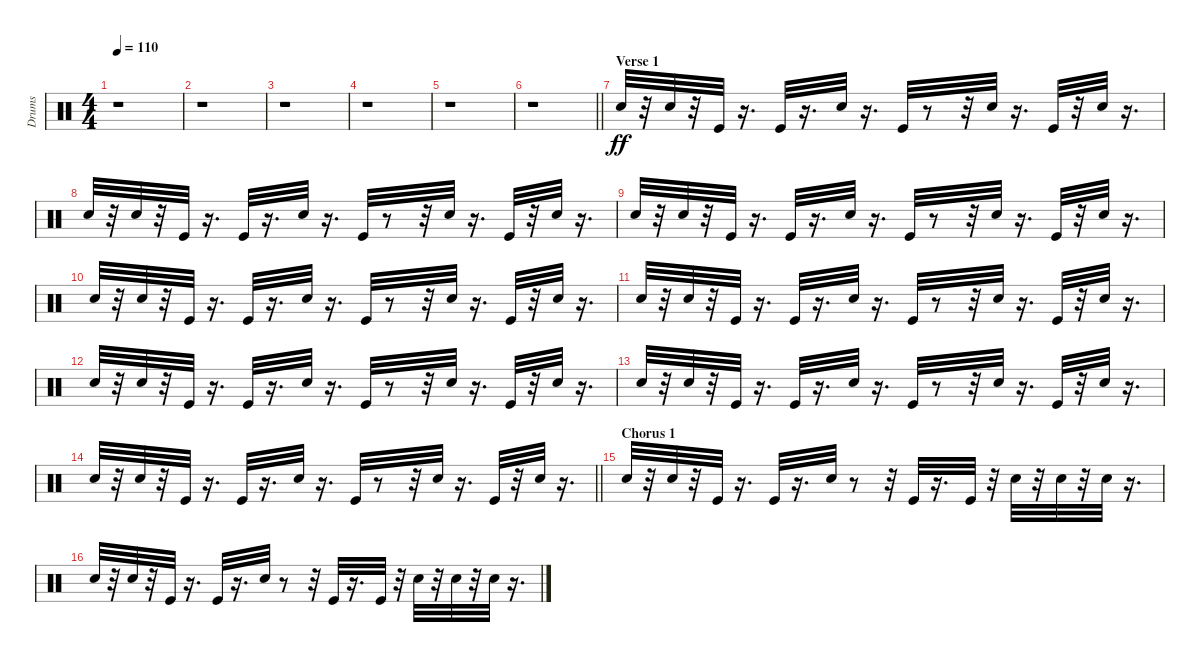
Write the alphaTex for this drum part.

\track ("Drums" "Drums") {instrument percussion}
\staff {score}
\articulation defaults
\ts (4 4)
\tempo 110
\clef neutral
\ks c
r.1{dy ff} |
r.1 |
r.1 |
r.1 |
r.1 |
\barLineRight lightlight
r.1 |
\section ("" "Verse 1")
"Snare (hit) 2".32 r.32 "Snare (hit) 2".32 r.32 "Kick (hit)".32 r.16{d} "Kick (hit)".32 r.16{d} "Snare (hit) 2".32 r.16{d} "Kick (hit)".32 r.8 r.32 "Snare (hit) 2".32 r.16{d} "Kick (hit)".32 r.32 "Snare (hit) 2".32 r.16{d} |
"Snare (hit) 2".32 r.32 "Snare (hit) 2".32 r.32 "Kick (hit)".32 r.16{d} "Kick (hit)".32 r.16{d} "Snare (hit) 2".32 r.16{d} "Kick (hit)".32 r.8 r.32 "Snare (hit) 2".32 r.16{d} "Kick (hit)".32 r.32 "Snare (hit) 2".32 r.16{d} |
"Snare (hit) 2".32 r.32 "Snare (hit) 2".32 r.32 "Kick (hit)".32 r.16{d} "Kick (hit)".32 r.16{d} "Snare (hit) 2".32 r.16{d} "Kick (hit)".32 r.8 r.32 "Snare (hit) 2".32 r.16{d} "Kick (hit)".32 r.32 "Snare (hit) 2".32 r.16{d} |
"Snare (hit) 2".32 r.32 "Snare (hit) 2".32 r.32 "Kick (hit)".32 r.16{d} "Kick (hit)".32 r.16{d} "Snare (hit) 2".32 r.16{d} "Kick (hit)".32 r.8 r.32 "Snare (hit) 2".32 r.16{d} "Kick (hit)".32 r.32 "Snare (hit) 2".32 r.16{d} |
"Snare (hit) 2".32 r.32 "Snare (hit) 2".32 r.32 "Kick (hit)".32 r.16{d} "Kick (hit)".32 r.16{d} "Snare (hit) 2".32 r.16{d} "Kick (hit)".32 r.8 r.32 "Snare (hit) 2".32 r.16{d} "Kick (hit)".32 r.32 "Snare (hit) 2".32 r.16{d} |
"Snare (hit) 2".32 r.32 "Snare (hit) 2".32 r.32 "Kick (hit)".32 r.16{d} "Kick (hit)".32 r.16{d} "Snare (hit) 2".32 r.16{d} "Kick (hit)".32 r.8 r.32 "Snare (hit) 2".32 r.16{d} "Kick (hit)".32 r.32 "Snare (hit) 2".32 r.16{d} |
"Snare (hit) 2".32 r.32 "Snare (hit) 2".32 r.32 "Kick (hit)".32 r.16{d} "Kick (hit)".32 r.16{d} "Snare (hit) 2".32 r.16{d} "Kick (hit)".32 r.8 r.32 "Snare (hit) 2".32 r.16{d} "Kick (hit)".32 r.32 "Snare (hit) 2".32 r.16{d} |
\barLineRight lightlight "Snare (hit) 2".32
r.32 "Snare (hit) 2".32 r.32 "Kick (hit)".32 r.16{d} "Kick (hit)".32 r.16{d} "Snare (hit) 2".32 r.16{d} "Kick (hit)".32 r.8 r.32 "Snare (hit) 2".32 r.16{d} "Kick (hit)".32 r.32 "Snare (hit) 2".32 r.16{d} |
\section ("" "Chorus 1")
"Snare (hit) 2".32 r.32 "Snare (hit) 2".32 r.32 "Kick (hit)".32 r.16{d} "Kick (hit)".32 r.16{d} "Snare (hit) 2".32 r.8 r.32 "Kick (hit)".32 r.16{d} "Kick (hit)".32 r.32 "Snare (hit) 2".32 r.32 "Snare (hit) 2".32 r.32 "Snare (hit) 2".32 r.16{d} |
"Snare (hit) 2".32 r.32 "Snare (hit) 2".32 r.32 "Kick (hit)".32 r.16{d} "Kick (hit)".32 r.16{d} "Snare (hit) 2".32 r.8 r.32 "Kick (hit)".32 r.16{d} "Kick (hit)".32 r.32 "Snare (hit) 2".32 r.32 "Snare (hit) 2".32 r.32 "Snare (hit) 2".32 r.16{d}
